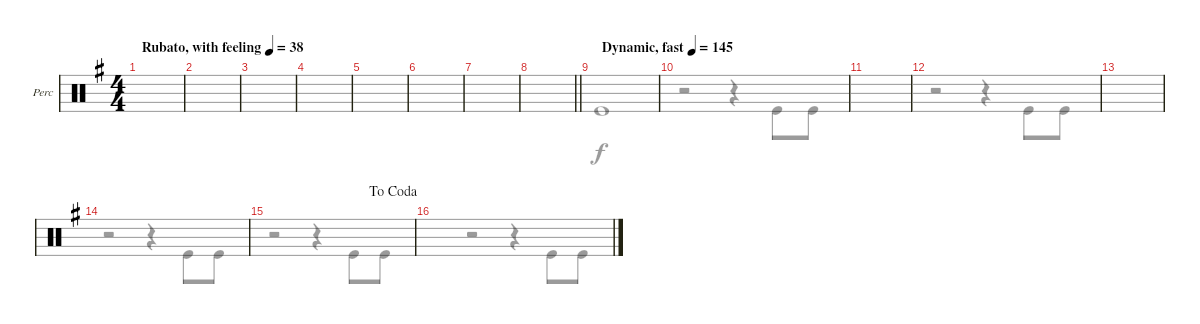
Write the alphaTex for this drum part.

\defaultSystemsLayout 4
\bracketExtendMode groupsimilarinstruments
\firstSystemTrackNameOrientation horizontal
\otherSystemsTrackNameOrientation horizontal
\track ("Percussion" "Perc") {instrument percussion}
\staff {score}
\articulation defaults
\voice
\ts (4 4)
\scale
0.520411
\tempo (38 "Rubato, with feeling")
\accidentals auto
\clef neutral
\ottava regular
\simile none
\ks eminor
|
\scale
0.479363 |
\scale
0.510979 |
\scale
0.488914 |
\scale
0.526717 |
\scale
0.473234 |
\scale
0.528023 |
\scale
0.47202
\tempo (38 0.75 hide)
\tempo (30 0.948905 hide)
\barLineRight lightlight
|
\scale
0.550853
\tempo (145 "Dynamic, fast")
\scale
0.472222 |
\scale
0.449994
\scale
0.263889 |
\scale
0.520395
\scale
0.263889 |
\scale
0.479858
\scale
0.333333 |
\scale
0.481843
\scale
0.333333 |
\scale
0.518389
\scale
0.333333 |
\jump dacoda
\scale
0.333333 |
\scale
0.649152
\scale
0.333333
\voice
\clef neutral
\ottava regular
\simile none
\ks eminor
|
|
|
|
|
|
|
\barLineRight lightlight
|
\scale
0.472222 "Kick (hit)".1 |
\scale
0.263889 r.2 r.4 "Kick (hit)".8 "Kick (hit)".8 |
\scale
0.263889 |
\scale
0.333333 r.2 r.4 "Kick (hit)".8 "Kick (hit)".8 |
\scale
0.333333 |
\scale
0.333333 r.2 r.4 "Kick (hit)".8 "Kick (hit)".8 |
\scale
0.333333 r.2 r.4 "Kick (hit)".8 "Kick (hit)".8 |
\scale
0.333333 r.2 r.4 "Kick (hit)".8 "Kick (hit)".8
